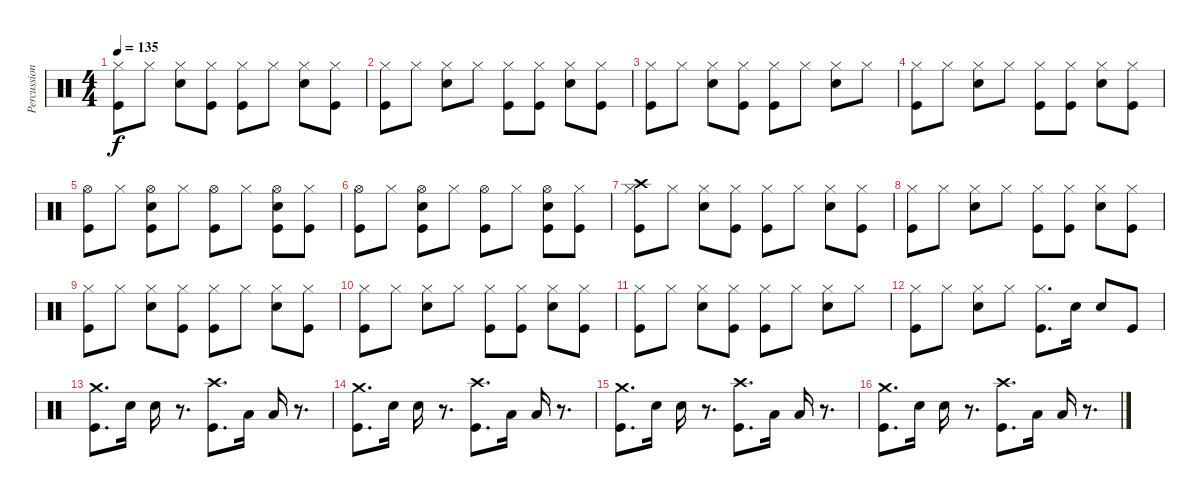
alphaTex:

\track ("Percussion - Mark Gajadhar" "Percussion") {instrument percussion}
\staff {score}
\articulation defaults
\ts (4 4)
\tempo 135
\clef neutral
\ks c
("Hi-Hat (closed)" "Kick (hit)").8{dy f} "Hi-Hat (closed)".8 ("Snare (hit) 2" "Hi-Hat (closed)").8 ("Hi-Hat (closed)" "Kick (hit)").8 ("Hi-Hat (closed)" "Kick (hit)").8 "Hi-Hat (closed)".8 ("Snare (hit) 2" "Hi-Hat (closed)").8 ("Hi-Hat (closed)" "Kick (hit)").8 |
("Hi-Hat (closed)" "Kick (hit)").8 "Hi-Hat (closed)".8 ("Snare (hit) 2" "Hi-Hat (closed)").8 "Hi-Hat (closed)".8 ("Hi-Hat (closed)" "Kick (hit)").8 ("Hi-Hat (closed)" "Kick (hit)").8 ("Snare (hit) 2" "Hi-Hat (closed)").8 ("Hi-Hat (closed)" "Kick (hit)").8 |
("Hi-Hat (closed)" "Kick (hit)").8 "Hi-Hat (closed)".8 ("Snare (hit) 2" "Hi-Hat (closed)").8 ("Hi-Hat (closed)" "Kick (hit)").8 ("Hi-Hat (closed)" "Kick (hit)").8 "Hi-Hat (closed)".8 ("Snare (hit) 2" "Hi-Hat (closed)").8 "Hi-Hat (closed)".8 |
("Hi-Hat (closed)" "Kick (hit)").8 "Hi-Hat (closed)".8 ("Snare (hit) 2" "Hi-Hat (closed)").8 "Hi-Hat (closed)".8 ("Hi-Hat (closed)" "Kick (hit)").8 ("Hi-Hat (closed)" "Kick (hit)").8 ("Snare (hit) 2" "Hi-Hat (closed)").8 ("Hi-Hat (closed)" "Kick (hit)").8 |
("Hi-Hat (open)" "Kick (hit)").8 "Hi-Hat (closed)".8 ("Snare (hit) 2" "Hi-Hat (open)" "Kick (hit)").8 "Hi-Hat (closed)".8 ("Hi-Hat (open)" "Kick (hit)").8 "Hi-Hat (closed)".8 ("Snare (hit) 2" "Hi-Hat (open)" "Kick (hit)").8 ("Hi-Hat (closed)" "Kick (hit)").8 |
("Hi-Hat (open)" "Kick (hit)").8 "Hi-Hat (closed)".8 ("Snare (hit) 2" "Hi-Hat (open)" "Kick (hit)").8 "Hi-Hat (closed)".8 ("Hi-Hat (open)" "Kick (hit)").8 "Hi-Hat (closed)".8 ("Snare (hit) 2" "Hi-Hat (open)" "Kick (hit)").8 ("Hi-Hat (closed)" "Kick (hit)").8 |
("Crash high (hit)" "Hi-Hat (closed)" "Kick (hit)").8 "Hi-Hat (closed)".8 ("Snare (hit) 2" "Hi-Hat (closed)").8 ("Hi-Hat (closed)" "Kick (hit)").8 ("Hi-Hat (closed)" "Kick (hit)").8 "Hi-Hat (closed)".8 ("Snare (hit) 2" "Hi-Hat (closed)").8 ("Hi-Hat (closed)" "Kick (hit)").8 |
("Hi-Hat (closed)" "Kick (hit)").8 "Hi-Hat (closed)".8 ("Snare (hit) 2" "Hi-Hat (closed)").8 "Hi-Hat (closed)".8 ("Hi-Hat (closed)" "Kick (hit)").8 ("Hi-Hat (closed)" "Kick (hit)").8 ("Snare (hit) 2" "Hi-Hat (closed)").8 ("Hi-Hat (closed)" "Kick (hit)").8 |
("Hi-Hat (closed)" "Kick (hit)").8 "Hi-Hat (closed)".8 ("Snare (hit) 2" "Hi-Hat (closed)").8 ("Hi-Hat (closed)" "Kick (hit)").8 ("Hi-Hat (closed)" "Kick (hit)").8 "Hi-Hat (closed)".8 ("Snare (hit) 2" "Hi-Hat (closed)").8 ("Hi-Hat (closed)" "Kick (hit)").8 |
("Hi-Hat (closed)" "Kick (hit)").8 "Hi-Hat (closed)".8 ("Snare (hit) 2" "Hi-Hat (closed)").8 "Hi-Hat (closed)".8 ("Hi-Hat (closed)" "Kick (hit)").8 ("Hi-Hat (closed)" "Kick (hit)").8 ("Snare (hit) 2" "Hi-Hat (closed)").8 ("Hi-Hat (closed)" "Kick (hit)").8 |
("Hi-Hat (closed)" "Kick (hit)").8 "Hi-Hat (closed)".8 ("Snare (hit) 2" "Hi-Hat (closed)").8 ("Hi-Hat (closed)" "Kick (hit)").8 ("Hi-Hat (closed)" "Kick (hit)").8 "Hi-Hat (closed)".8 ("Snare (hit) 2" "Hi-Hat (closed)").8 "Hi-Hat (closed)".8 |
("Hi-Hat (closed)" "Kick (hit)").8 "Hi-Hat (closed)".8 ("Snare (hit) 2" "Hi-Hat (closed)").8 "Hi-Hat (closed)".8 ("Hi-Hat (closed)" "Kick (hit)").8{d} "Snare (hit) 2".16 "Snare (hit) 2".8 "Kick (hit)".8 |
("Crash medium (hit)" "Kick (hit)").8{d} "Snare (hit) 2".16 "Snare (hit) 2".16 r.8{d} ("Crash high (hit)" "Kick (hit)").8{d} "Low Tom (hit)".16 "Low Floor Tom (hit)".16 r.8{d} |
("Crash medium (hit)" "Kick (hit)").8{d} "Snare (hit) 2".16 "Snare (hit) 2".16 r.8{d} ("Crash high (hit)" "Kick (hit)").8{d} "Low Tom (hit)".16 "Low Floor Tom (hit)".16 r.8{d} |
("Crash medium (hit)" "Kick (hit)").8{d} "Snare (hit) 2".16 "Snare (hit) 2".16 r.8{d} ("Crash high (hit)" "Kick (hit)").8{d} "Low Tom (hit)".16 "Low Floor Tom (hit)".16 r.8{d} |
("Crash medium (hit)" "Kick (hit)").8{d} "Snare (hit) 2".16 "Snare (hit) 2".16 r.8{d} ("Crash high (hit)" "Kick (hit)").8{d} "Low Tom (hit)".16 "Low Floor Tom (hit)".16 r.8{d}
